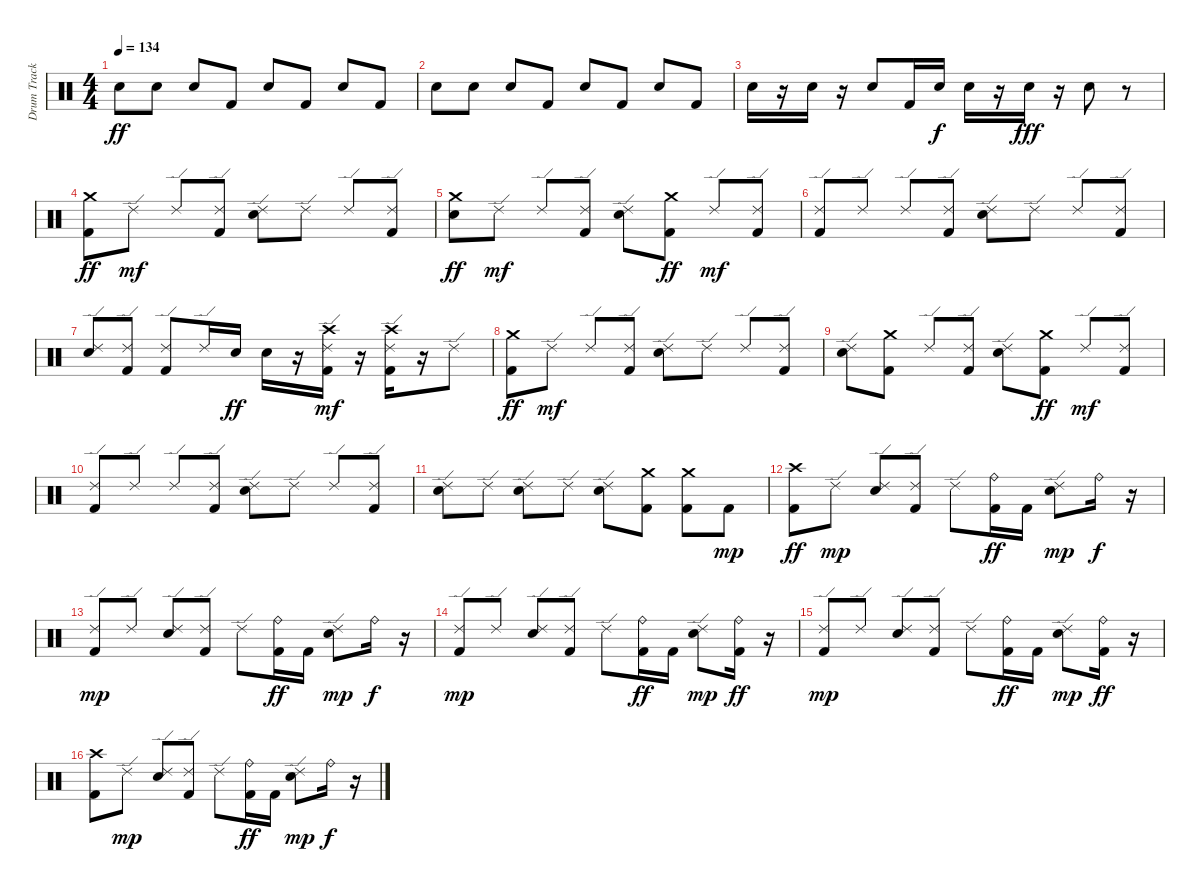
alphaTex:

\track ("Drum Track" "Drum Track") {instrument percussion}
\staff {score}
\articulation defaults
\ts (4 4)
\tempo 134
\clef neutral
\ks c "Electric Snare (hit)".8{dy ff} "Electric Snare (hit)".8 "Electric Snare (hit)".8 "Kick (hit) 2".8 "Electric Snare (hit)".8 "Kick (hit) 2".8 "Electric Snare (hit)".8 "Kick (hit) 2".8
|
"Electric Snare (hit)".8 "Electric Snare (hit)".8 "Electric Snare (hit)".8 "Kick (hit) 2".8 "Electric Snare (hit)".8 "Kick (hit) 2".8 "Electric Snare (hit)".8 "Kick (hit) 2".8 |
"Electric Snare (hit)".16 r.16 "Electric Snare (hit)".16 r.16 "Electric Snare (hit)".8 "Kick (hit) 2".16 "Electric Snare (hit)".16{dy f} "Electric Snare (hit)".16 r.16 "Electric Snare (hit)".16{dy fff} r.16 "Electric Snare (hit)".8 r.8 |
("Kick (hit) 2" "Crash medium (hit)").8{dy ff} "Ride (edge) 2".8{dy mf} "Ride (edge) 2".8 ("Kick (hit) 2" "Ride (edge) 2").8 ("Electric Snare (hit)" "Ride (edge) 2").8 "Ride (edge) 2".8 "Ride (edge) 2".8 ("Kick (hit) 2" "Ride (edge) 2").8 |
("Electric Snare (hit)" "Crash medium (hit)").8{dy ff} "Ride (edge) 2".8{dy mf} "Ride (edge) 2".8 ("Kick (hit) 2" "Ride (edge) 2").8 ("Electric Snare (hit)" "Ride (edge) 2").8 ("Kick (hit) 2" "Crash medium (hit)").8{dy ff} "Ride (edge) 2".8{dy mf} ("Kick (hit) 2" "Ride (edge) 2").8 |
("Kick (hit) 2" "Ride (edge) 2").8 "Ride (edge) 2".8 "Ride (edge) 2".8 ("Kick (hit) 2" "Ride (edge) 2").8 ("Electric Snare (hit)" "Ride (edge) 2").8 "Ride (edge) 2".8 "Ride (edge) 2".8 ("Kick (hit) 2" "Ride (edge) 2").8 |
("Electric Snare (hit)" "Ride (edge) 2").8 ("Kick (hit) 2" "Ride (edge) 2").8 ("Kick (hit) 2" "Ride (edge) 2").8 "Ride (edge) 2".16 "Electric Snare (hit)".16{dy ff} "Electric Snare (hit)".16 r.16 ("Kick (hit) 2" "Crash high (hit)" "Ride (edge) 2").16{dy mf} r.16 ("Kick (hit) 2" "Crash high (hit)" "Ride (edge) 2").16 r.16 "Ride (edge) 2".8 |
("Kick (hit) 2" "Crash medium (hit)").8{dy ff} "Ride (edge) 2".8{dy mf} "Ride (edge) 2".8 ("Kick (hit) 2" "Ride (edge) 2").8 ("Electric Snare (hit)" "Ride (edge) 2").8 "Ride (edge) 2".8 "Ride (edge) 2".8 ("Kick (hit) 2" "Ride (edge) 2").8 |
("Electric Snare (hit)" "Ride (edge) 2").8 ("Kick (hit) 2" "Crash medium (hit)").8 "Ride (edge) 2".8 ("Kick (hit) 2" "Ride (edge) 2").8 ("Electric Snare (hit)" "Ride (edge) 2").8 ("Kick (hit) 2" "Crash medium (hit)").8{dy ff} "Ride (edge) 2".8{dy mf} ("Kick (hit) 2" "Ride (edge) 2").8 |
("Kick (hit) 2" "Ride (edge) 2").8 "Ride (edge) 2".8 "Ride (edge) 2".8 ("Kick (hit) 2" "Ride (edge) 2").8 ("Electric Snare (hit)" "Ride (edge) 2").8 "Ride (edge) 2".8 "Ride (edge) 2".8 ("Kick (hit) 2" "Ride (edge) 2").8 |
("Electric Snare (hit)" "Ride (edge) 2").8 "Ride (edge) 2".8 ("Electric Snare (hit)" "Ride (edge) 2").8 "Ride (edge) 2".8 ("Electric Snare (hit)" "Ride (edge) 2").8 ("Kick (hit) 2" "Crash medium (hit)").8 ("Kick (hit) 2" "Crash medium (hit)").8 "Kick (hit) 2".8{dy mp} |
("Kick (hit) 2" "Crash high (hit)").8{dy ff} "Ride (edge) 2".8{dy mp} ("Electric Snare (hit)" "Ride (edge) 2").8 ("Kick (hit) 2" "Ride (edge) 2").8 "Ride (edge) 2".8 ("Kick (hit) 2" "Ride (bell)").16{dy ff} "Kick (hit) 2".16 ("Electric Snare (hit)" "Ride (edge) 2").8{dy mp} "Ride (bell)".16{dy f} r.16 |
("Kick (hit) 2" "Ride (edge) 2").8{dy mp} "Ride (edge) 2".8 ("Electric Snare (hit)" "Ride (edge) 2").8 ("Kick (hit) 2" "Ride (edge) 2").8 "Ride (edge) 2".8 ("Kick (hit) 2" "Ride (bell)").16{dy ff} "Kick (hit) 2".16 ("Electric Snare (hit)" "Ride (edge) 2").8{dy mp} "Ride (bell)".16{dy f} r.16 |
("Kick (hit) 2" "Ride (edge) 2").8{dy mp} "Ride (edge) 2".8 ("Electric Snare (hit)" "Ride (edge) 2").8 ("Kick (hit) 2" "Ride (edge) 2").8 "Ride (edge) 2".8 ("Kick (hit) 2" "Ride (bell)").16{dy ff} "Kick (hit) 2".16 ("Electric Snare (hit)" "Ride (edge) 2").8{dy mp} ("Kick (hit) 2" "Ride (bell)").16{dy ff} r.16 |
("Kick (hit) 2" "Ride (edge) 2").8{dy mp} "Ride (edge) 2".8 ("Electric Snare (hit)" "Ride (edge) 2").8 ("Kick (hit) 2" "Ride (edge) 2").8 "Ride (edge) 2".8 ("Kick (hit) 2" "Ride (bell)").16{dy ff} "Kick (hit) 2".16 ("Electric Snare (hit)" "Ride (edge) 2").8{dy mp} ("Kick (hit) 2" "Ride (bell)").16{dy ff} r.16 |
("Kick (hit) 2" "Crash high (hit)").8 "Ride (edge) 2".8{dy mp} ("Electric Snare (hit)" "Ride (edge) 2").8 ("Kick (hit) 2" "Ride (edge) 2").8 "Ride (edge) 2".8 ("Kick (hit) 2" "Ride (bell)").16{dy ff} "Kick (hit) 2".16 ("Electric Snare (hit)" "Ride (edge) 2").8{dy mp} "Ride (bell)".16{dy f} r.16
